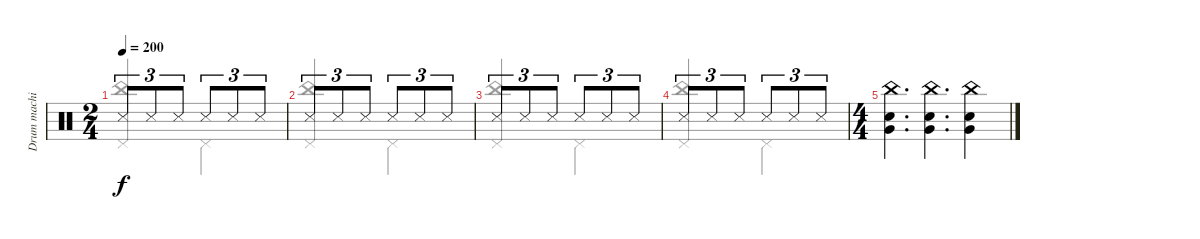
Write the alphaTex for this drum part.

\track ("Drum machine" "Drum machi") {instrument percussion}
\staff {score}
\articulation defaults
\voice
\ts (2 4)
\tempo 200
\clef neutral
\ks c "Snare (side stick) 3".8{tu (3 2) dy f} "Snare (side stick) 3".8{tu (3 2)} "Snare (side stick) 3".8{tu (3 2)} "Snare (side stick) 3".8{tu (3 2)} "Snare (side stick) 3".8{tu (3 2)} "Snare (side stick) 3".8{tu (3 2)}
|
"Snare (side stick) 3".8{tu (3 2)} "Snare (side stick) 3".8{tu (3 2)} "Snare (side stick) 3".8{tu (3 2)} "Snare (side stick) 3".8{tu (3 2)} "Snare (side stick) 3".8{tu (3 2)} "Snare (side stick) 3".8{tu (3 2)} |
"Snare (side stick) 3".8{tu (3 2)} "Snare (side stick) 3".8{tu (3 2)} "Snare (side stick) 3".8{tu (3 2)} "Snare (side stick) 3".8{tu (3 2)} "Snare (side stick) 3".8{tu (3 2)} "Snare (side stick) 3".8{tu (3 2)} |
"Snare (side stick) 3".8{tu (3 2)} "Snare (side stick) 3".8{tu (3 2)} "Snare (side stick) 3".8{tu (3 2)} "Snare (side stick) 3".8{tu (3 2)} "Snare (side stick) 3".8{tu (3 2)} "Snare (side stick) 3".8{tu (3 2)} |
\ts (4 4)
("China (hit)" "Electric Snare (hit)" "Very Low Tom (hit)").4{d} ("China (hit)" "Electric Snare (hit)" "Very Low Tom (hit)").4{d} ("China (hit)" "Electric Snare (hit)" "Very Low Tom (hit)").4
\voice
\clef neutral
\ottava regular
\simile none
\ks c
("China (hit)" "Pedal Hi-Hat (hit)").4{dy f beam Up} "Pedal Hi-Hat (hit)".4 |
("China (hit)" "Pedal Hi-Hat (hit)").4{beam Up} "Pedal Hi-Hat (hit)".4 |
("China (hit)" "Pedal Hi-Hat (hit)").4{beam Up} "Pedal Hi-Hat (hit)".4 |
("China (hit)" "Pedal Hi-Hat (hit)").4{beam Up} "Pedal Hi-Hat (hit)".4 |
